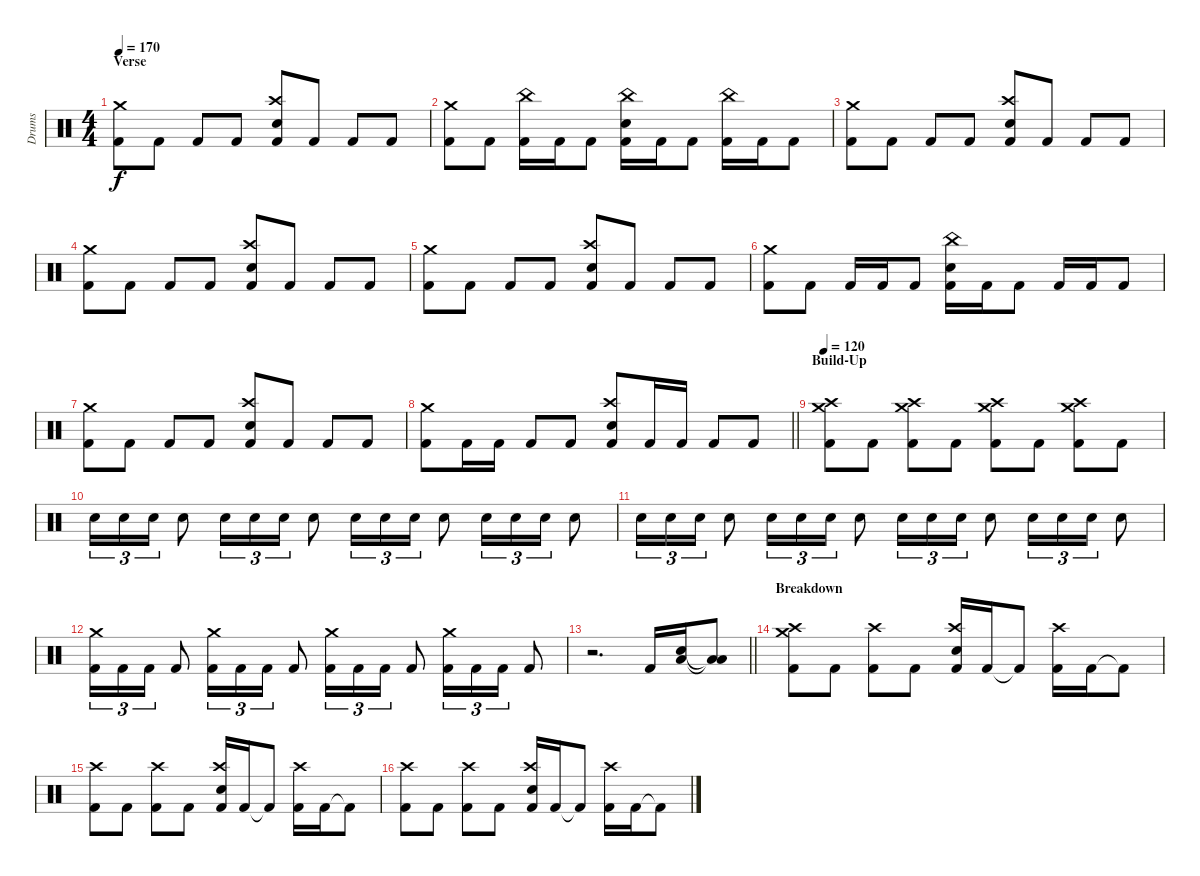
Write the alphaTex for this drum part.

\track ("Drums" "Drums") {instrument percussion}
\staff {score}
\articulation defaults
\ts (4 4)
\section ("" "Verse")
\tempo 170
\clef neutral
\ks c
("Crash medium (hit)" "Kick (hit) 2").8{dy f} "Kick (hit) 2".8 "Kick (hit) 2".8 "Kick (hit) 2".8 ("Crash high (hit)" "Electric Snare (hit)" "Kick (hit) 2").8 "Kick (hit) 2".8 "Kick (hit) 2".8 "Kick (hit) 2".8 |
("Crash medium (hit)" "Kick (hit) 2").8 "Kick (hit) 2".8 ("China (hit)" "Kick (hit) 2").16 "Kick (hit) 2".16 "Kick (hit) 2".8 ("China (hit)" "Electric Snare (hit)" "Kick (hit) 2").16 "Kick (hit) 2".16 "Kick (hit) 2".8 ("China (hit)" "Kick (hit) 2").16 "Kick (hit) 2".16 "Kick (hit) 2".8 |
("Crash medium (hit)" "Kick (hit) 2").8 "Kick (hit) 2".8 "Kick (hit) 2".8 "Kick (hit) 2".8 ("Crash high (hit)" "Electric Snare (hit)" "Kick (hit) 2").8 "Kick (hit) 2".8 "Kick (hit) 2".8 "Kick (hit) 2".8 |
("Crash medium (hit)" "Kick (hit) 2").8 "Kick (hit) 2".8 "Kick (hit) 2".8 "Kick (hit) 2".8 ("Crash high (hit)" "Electric Snare (hit)" "Kick (hit) 2").8 "Kick (hit) 2".8 "Kick (hit) 2".8 "Kick (hit) 2".8 |
("Crash medium (hit)" "Kick (hit) 2").8 "Kick (hit) 2".8 "Kick (hit) 2".8 "Kick (hit) 2".8 ("Crash high (hit)" "Electric Snare (hit)" "Kick (hit) 2").8 "Kick (hit) 2".8 "Kick (hit) 2".8 "Kick (hit) 2".8 |
("Crash medium (hit)" "Kick (hit) 2").8 "Kick (hit) 2".8 "Kick (hit) 2".16 "Kick (hit) 2".16 "Kick (hit) 2".8 ("China (hit)" "Electric Snare (hit)" "Kick (hit) 2").16 "Kick (hit) 2".16 "Kick (hit) 2".8 "Kick (hit) 2".16 "Kick (hit) 2".16 "Kick (hit) 2".8 |
("Crash medium (hit)" "Kick (hit) 2").8 "Kick (hit) 2".8 "Kick (hit) 2".8 "Kick (hit) 2".8 ("Crash high (hit)" "Electric Snare (hit)" "Kick (hit) 2").8 "Kick (hit) 2".8 "Kick (hit) 2".8 "Kick (hit) 2".8 |
\barLineRight lightlight
("Crash medium (hit)" "Kick (hit) 2").8 "Kick (hit) 2".16 "Kick (hit) 2".16 "Kick (hit) 2".8 "Kick (hit) 2".8 ("Crash high (hit)" "Electric Snare (hit)" "Kick (hit) 2").8 "Kick (hit) 2".16 "Kick (hit) 2".16 "Kick (hit) 2".8 "Kick (hit) 2".8 |
\section ("" "Build-Up")
\tempo 120
("Crash medium (hit)" "Crash high (hit)" "Kick (hit) 2").8 "Kick (hit) 2".8 ("Crash medium (hit)" "Crash high (hit)" "Kick (hit) 2").8 "Kick (hit) 2".8 ("Crash medium (hit)" "Crash high (hit)" "Kick (hit) 2").8 "Kick (hit) 2".8 ("Crash medium (hit)" "Crash high (hit)" "Kick (hit) 2").8 "Kick (hit) 2".8 |
"Electric Snare (hit)".16{tu (3 2)} "Electric Snare (hit)".16{tu (3 2)} "Electric Snare (hit)".16{tu (3 2)} "Electric Snare (hit)".8 "Electric Snare (hit)".16{tu (3 2)} "Electric Snare (hit)".16{tu (3 2)} "Electric Snare (hit)".16{tu (3 2)} "Electric Snare (hit)".8 "Electric Snare (hit)".16{tu (3 2)} "Electric Snare (hit)".16{tu (3 2)} "Electric Snare (hit)".16{tu (3 2)} "Electric Snare (hit)".8 "Electric Snare (hit)".16{tu (3 2)} "Electric Snare (hit)".16{tu (3 2)} "Electric Snare (hit)".16{tu (3 2)} "Electric Snare (hit)".8 |
"Electric Snare (hit)".16{tu (3 2)} "Electric Snare (hit)".16{tu (3 2)} "Electric Snare (hit)".16{tu (3 2)} "Electric Snare (hit)".8 "Electric Snare (hit)".16{tu (3 2)} "Electric Snare (hit)".16{tu (3 2)} "Electric Snare (hit)".16{tu (3 2)} "Electric Snare (hit)".8 "Electric Snare (hit)".16{tu (3 2)} "Electric Snare (hit)".16{tu (3 2)} "Electric Snare (hit)".16{tu (3 2)} "Electric Snare (hit)".8 "Electric Snare (hit)".16{tu (3 2)} "Electric Snare (hit)".16{tu (3 2)} "Electric Snare (hit)".16{tu (3 2)} "Electric Snare (hit)".8 |
("Crash medium (hit)" "Kick (hit) 2").16{tu (3 2)} "Kick (hit) 2".16{tu (3 2)} "Kick (hit) 2".16{tu (3 2)} "Kick (hit) 2".8 ("Crash medium (hit)" "Kick (hit) 2").16{tu (3 2)} "Kick (hit) 2".16{tu (3 2)} "Kick (hit) 2".16{tu (3 2)} "Kick (hit) 2".8 ("Crash medium (hit)" "Kick (hit) 2").16{tu (3 2)} "Kick (hit) 2".16{tu (3 2)} "Kick (hit) 2".16{tu (3 2)} "Kick (hit) 2".8 ("Crash medium (hit)" "Kick (hit) 2").16{tu (3 2)} "Kick (hit) 2".16{tu (3 2)} "Kick (hit) 2".16{tu (3 2)} "Kick (hit) 2".8 |
\barLineRight lightlight
r.2{d} "Kick (hit) 2".16 ("Electric Snare (hit)" "Low Floor Tom (hit)").16 ("Low Floor Tom (hit)"{t} "Low Floor Tom (hit)"{t}).8 |
\section ("" "Breakdown")
("Crash medium (hit)" "Crash high (hit)" "Kick (hit) 2").8 "Kick (hit) 2".8 ("Crash high (hit)" "Kick (hit) 2").8 "Kick (hit) 2".8 ("Crash high (hit)" "Electric Snare (hit)" "Kick (hit) 2").16 "Kick (hit) 2".16 "Kick (hit) 2"{t}.8 ("Crash high (hit)" "Kick (hit) 2").16 "Kick (hit) 2".16 "Kick (hit) 2"{t}.8 |
("Crash high (hit)" "Kick (hit) 2").8 "Kick (hit) 2".8 ("Crash high (hit)" "Kick (hit) 2").8 "Kick (hit) 2".8 ("Crash high (hit)" "Electric Snare (hit)" "Kick (hit) 2").16 "Kick (hit) 2".16 "Kick (hit) 2"{t}.8 ("Crash high (hit)" "Kick (hit) 2").16 "Kick (hit) 2".16 "Kick (hit) 2"{t}.8 |
("Crash high (hit)" "Kick (hit) 2").8 "Kick (hit) 2".8 ("Crash high (hit)" "Kick (hit) 2").8 "Kick (hit) 2".8 ("Crash high (hit)" "Electric Snare (hit)" "Kick (hit) 2").16 "Kick (hit) 2".16 "Kick (hit) 2"{t}.8 ("Crash high (hit)" "Kick (hit) 2").16 "Kick (hit) 2".16 "Kick (hit) 2"{t}.8
